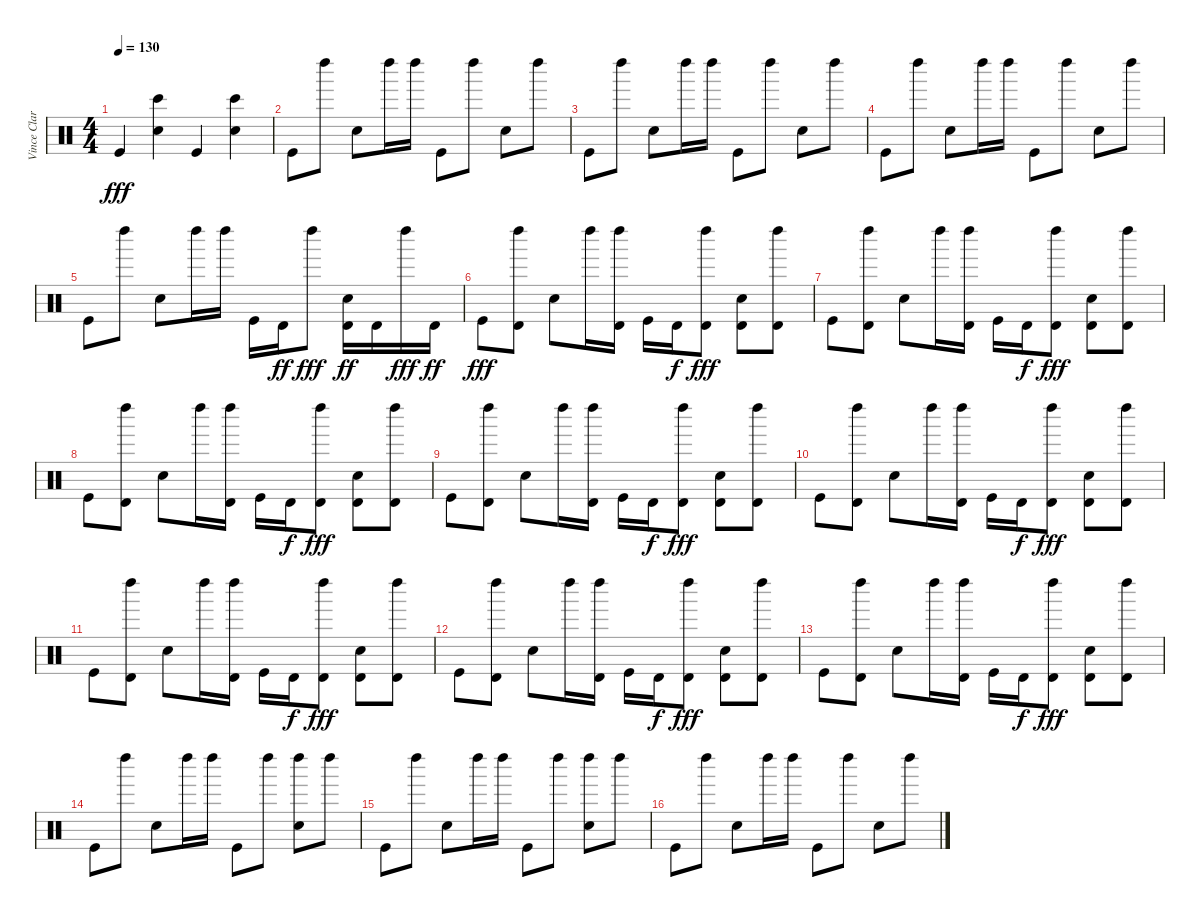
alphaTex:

\track ("Vince Clarke" "Vince Clar") {instrument percussion}
\staff {score}
\articulation defaults
\ts (4 4)
\tempo 130
\clef neutral
\ks c "Kick (hit)".4{dy fff}
("Snare (hit) 2" "Bongo High (hit)").4 "Kick (hit)".4 ("Snare (hit) 2" "Bongo High (hit)").4 |
"Kick (hit)".8 "Left Maraca (hit)".8 "Snare (hit) 2".8 "Left Maraca (hit)".16 "Left Maraca (hit)".16 "Kick (hit)".8 "Left Maraca (hit)".8 "Snare (hit) 2".8 "Left Maraca (hit)".8 |
"Kick (hit)".8 "Left Maraca (hit)".8 "Snare (hit) 2".8 "Left Maraca (hit)".16 "Left Maraca (hit)".16 "Kick (hit)".8 "Left Maraca (hit)".8 "Snare (hit) 2".8 "Left Maraca (hit)".8 |
"Kick (hit)".8 "Left Maraca (hit)".8 "Snare (hit) 2".8 "Left Maraca (hit)".16 "Left Maraca (hit)".16 "Kick (hit)".8 "Left Maraca (hit)".8 "Snare (hit) 2".8 "Left Maraca (hit)".8 |
"Kick (hit)".8 "Left Maraca (hit)".8 "Snare (hit) 2".8 "Left Maraca (hit)".16 "Left Maraca (hit)".16 "Kick (hit)".16 "Timbale high (hit)".16{dy ff} "Left Maraca (hit)".8{dy fff} ("Snare (hit) 2" "Timbale high (hit)").16{dy ff} "Timbale high (hit)".16 "Left Maraca (hit)".16{dy fff} "Timbale high (hit)".16{dy ff} |
"Kick (hit)".8{dy fff} ("Left Maraca (hit)" "Timbale high (hit)").8 "Snare (hit) 2".8 "Left Maraca (hit)".16 ("Left Maraca (hit)" "Timbale high (hit)").16 "Kick (hit)".16 "Timbale high (hit)".16{dy f} ("Left Maraca (hit)" "Timbale high (hit)").8{dy fff} ("Snare (hit) 2" "Timbale high (hit)").8 ("Left Maraca (hit)" "Timbale high (hit)").8 |
"Kick (hit)".8 ("Left Maraca (hit)" "Timbale high (hit)").8 "Snare (hit) 2".8 "Left Maraca (hit)".16 ("Left Maraca (hit)" "Timbale high (hit)").16 "Kick (hit)".16 "Timbale high (hit)".16{dy f} ("Left Maraca (hit)" "Timbale high (hit)").8{dy fff} ("Snare (hit) 2" "Timbale high (hit)").8 ("Left Maraca (hit)" "Timbale high (hit)").8 |
"Kick (hit)".8 ("Left Maraca (hit)" "Timbale high (hit)").8 "Snare (hit) 2".8 "Left Maraca (hit)".16 ("Left Maraca (hit)" "Timbale high (hit)").16 "Kick (hit)".16 "Timbale high (hit)".16{dy f} ("Left Maraca (hit)" "Timbale high (hit)").8{dy fff} ("Snare (hit) 2" "Timbale high (hit)").8 ("Left Maraca (hit)" "Timbale high (hit)").8 |
"Kick (hit)".8 ("Left Maraca (hit)" "Timbale high (hit)").8 "Snare (hit) 2".8 "Left Maraca (hit)".16 ("Left Maraca (hit)" "Timbale high (hit)").16 "Kick (hit)".16 "Timbale high (hit)".16{dy f} ("Left Maraca (hit)" "Timbale high (hit)").8{dy fff} ("Snare (hit) 2" "Timbale high (hit)").8 ("Left Maraca (hit)" "Timbale high (hit)").8 |
"Kick (hit)".8 ("Left Maraca (hit)" "Timbale high (hit)").8 "Snare (hit) 2".8 "Left Maraca (hit)".16 ("Left Maraca (hit)" "Timbale high (hit)").16 "Kick (hit)".16 "Timbale high (hit)".16{dy f} ("Left Maraca (hit)" "Timbale high (hit)").8{dy fff} ("Snare (hit) 2" "Timbale high (hit)").8 ("Left Maraca (hit)" "Timbale high (hit)").8 |
"Kick (hit)".8 ("Left Maraca (hit)" "Timbale high (hit)").8 "Snare (hit) 2".8 "Left Maraca (hit)".16 ("Left Maraca (hit)" "Timbale high (hit)").16 "Kick (hit)".16 "Timbale high (hit)".16{dy f} ("Left Maraca (hit)" "Timbale high (hit)").8{dy fff} ("Snare (hit) 2" "Timbale high (hit)").8 ("Left Maraca (hit)" "Timbale high (hit)").8 |
"Kick (hit)".8 ("Left Maraca (hit)" "Timbale high (hit)").8 "Snare (hit) 2".8 "Left Maraca (hit)".16 ("Left Maraca (hit)" "Timbale high (hit)").16 "Kick (hit)".16 "Timbale high (hit)".16{dy f} ("Left Maraca (hit)" "Timbale high (hit)").8{dy fff} ("Snare (hit) 2" "Timbale high (hit)").8 ("Left Maraca (hit)" "Timbale high (hit)").8 |
"Kick (hit)".8 ("Left Maraca (hit)" "Timbale high (hit)").8 "Snare (hit) 2".8 "Left Maraca (hit)".16 ("Left Maraca (hit)" "Timbale high (hit)").16 "Kick (hit)".16 "Timbale high (hit)".16{dy f} ("Left Maraca (hit)" "Timbale high (hit)").8{dy fff} ("Snare (hit) 2" "Timbale high (hit)").8 ("Left Maraca (hit)" "Timbale high (hit)").8 |
"Kick (hit)".8 "Left Maraca (hit)".8 "Snare (hit) 2".8 "Left Maraca (hit)".16 "Left Maraca (hit)".16 "Kick (hit)".8 "Left Maraca (hit)".8 ("Snare (hit) 2" "Left Maraca (hit)").8 "Left Maraca (hit)".8 |
"Kick (hit)".8 "Left Maraca (hit)".8 "Snare (hit) 2".8 "Left Maraca (hit)".16 "Left Maraca (hit)".16 "Kick (hit)".8 "Left Maraca (hit)".8 ("Snare (hit) 2" "Left Maraca (hit)").8 "Left Maraca (hit)".8 |
"Kick (hit)".8 "Left Maraca (hit)".8 "Snare (hit) 2".8 "Left Maraca (hit)".16 "Left Maraca (hit)".16 "Kick (hit)".8 "Left Maraca (hit)".8 "Snare (hit) 2".8 "Left Maraca (hit)".8
